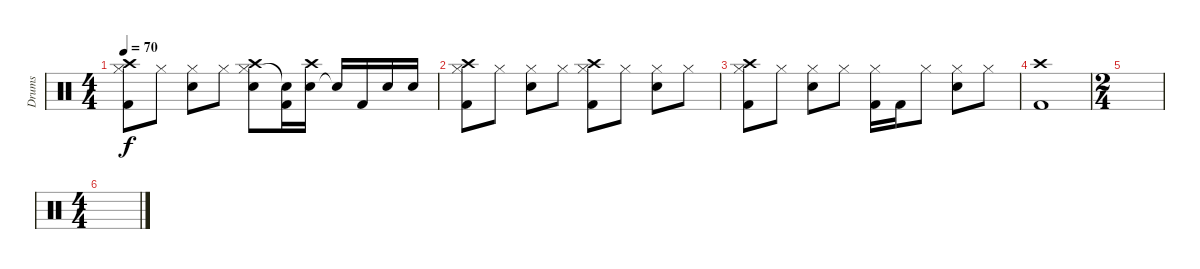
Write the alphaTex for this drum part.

\track ("Drums" "Drums") {instrument percussion}
\staff {score}
\articulation defaults
\ts (4 4)
\tempo 70
\clef neutral
\ks c
("Kick (hit) 2" "Hi-Hat (closed)" "Crash high (hit)").8{dy f} "Hi-Hat (closed)".8 ("Electric Snare (hit)" "Hi-Hat (closed)").8 "Hi-Hat (closed)".8 ("Electric Snare (hit)" "Hi-Hat (closed)" "Crash high (hit)").8 ("Kick (hit) 2" "Snare (hit)"{t}).16 ("Electric Snare (hit)" "Crash high (hit)").16 "Snare (hit)"{t}.16 "Kick (hit) 2".16 "Electric Snare (hit)".16 "Electric Snare (hit)".16 |
("Kick (hit) 2" "Hi-Hat (closed)" "Crash high (hit)").8 "Hi-Hat (closed)".8 ("Electric Snare (hit)" "Hi-Hat (closed)").8 "Hi-Hat (closed)".8 ("Kick (hit) 2" "Hi-Hat (closed)" "Crash high (hit)").8 "Hi-Hat (closed)".8 ("Electric Snare (hit)" "Hi-Hat (closed)").8 "Hi-Hat (closed)".8 |
("Kick (hit) 2" "Hi-Hat (closed)" "Crash high (hit)").8 "Hi-Hat (closed)".8 ("Electric Snare (hit)" "Hi-Hat (closed)").8 "Hi-Hat (closed)".8 ("Kick (hit) 2" "Hi-Hat (closed)").16 "Kick (hit) 2".16 "Hi-Hat (closed)".8 ("Electric Snare (hit)" "Hi-Hat (closed)").8 "Hi-Hat (closed)".8 |
("Kick (hit) 2" "Crash high (hit)").1 |
\ts (2 4)
|
\ts (4 4)
